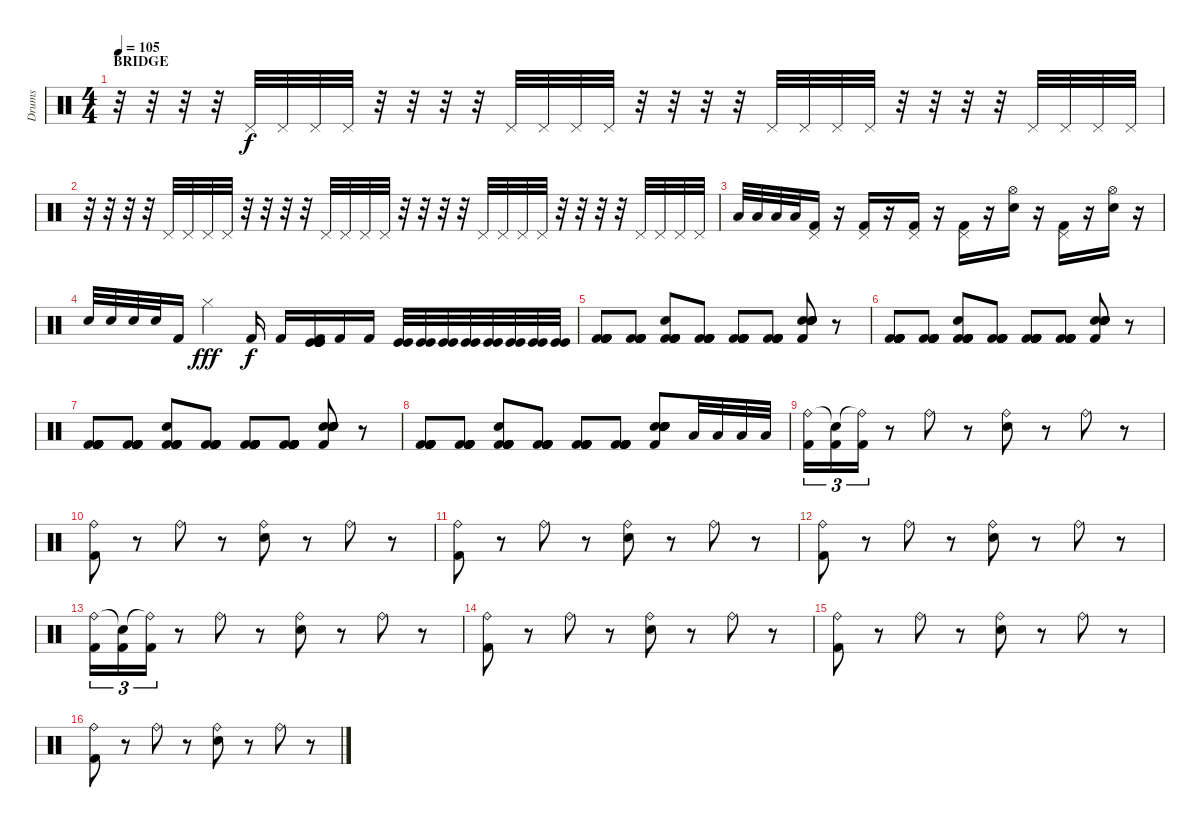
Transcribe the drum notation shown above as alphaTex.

\track ("Drums" "Drums") {instrument percussion}
\staff {score}
\articulation defaults
\ts (4 4)
\section ("" "BRIDGE")
\tempo 105
\clef neutral
\ks c
r.32{dy f} r.32 r.32 r.32 "Pedal Hi-Hat (hit)".32 "Pedal Hi-Hat (hit)".32 "Pedal Hi-Hat (hit)".32 "Pedal Hi-Hat (hit)".32 r.32 r.32 r.32 r.32 "Pedal Hi-Hat (hit)".32 "Pedal Hi-Hat (hit)".32 "Pedal Hi-Hat (hit)".32 "Pedal Hi-Hat (hit)".32 r.32 r.32 r.32 r.32 "Pedal Hi-Hat (hit)".32 "Pedal Hi-Hat (hit)".32 "Pedal Hi-Hat (hit)".32 "Pedal Hi-Hat (hit)".32 r.32 r.32 r.32 r.32 "Pedal Hi-Hat (hit)".32 "Pedal Hi-Hat (hit)".32 "Pedal Hi-Hat (hit)".32 "Pedal Hi-Hat (hit)".32 |
r.32 r.32 r.32 r.32 "Pedal Hi-Hat (hit)".32 "Pedal Hi-Hat (hit)".32 "Pedal Hi-Hat (hit)".32 "Pedal Hi-Hat (hit)".32 r.32 r.32 r.32 r.32 "Pedal Hi-Hat (hit)".32 "Pedal Hi-Hat (hit)".32 "Pedal Hi-Hat (hit)".32 "Pedal Hi-Hat (hit)".32 r.32 r.32 r.32 r.32 "Pedal Hi-Hat (hit)".32 "Pedal Hi-Hat (hit)".32 "Pedal Hi-Hat (hit)".32 "Pedal Hi-Hat (hit)".32 r.32 r.32 r.32 r.32 "Pedal Hi-Hat (hit)".32 "Pedal Hi-Hat (hit)".32 "Pedal Hi-Hat (hit)".32 "Pedal Hi-Hat (hit)".32 |
"Low Floor Tom (hit)".32 "Low Floor Tom (hit)".32 "Low Floor Tom (hit)".32 "Low Floor Tom (hit)".32 ("Pedal Hi-Hat (hit)" "Kick (hit) 2").16 r.16 ("Pedal Hi-Hat (hit)" "Kick (hit) 2").16 r.16 ("Pedal Hi-Hat (hit)" "Kick (hit) 2").16 r.16 ("Pedal Hi-Hat (hit)" "Kick (hit) 2").16 r.16 ("Hi-Hat (open)" "Electric Snare (hit)").16 r.16 ("Pedal Hi-Hat (hit)" "Kick (hit) 2").16 r.16 ("Hi-Hat (open)" "Electric Snare (hit)").16 r.16 |
"Electric Snare (hit)".32 "Electric Snare (hit)".32 "Electric Snare (hit)".32 "Electric Snare (hit)".32 "Kick (hit) 2".16 "Hi-Hat (closed)"{be (custom 0 0 13 8 15 12 30 12 60 12)}.4{dy fff} "Kick (hit) 2".16{dy f} "Kick (hit) 2".16 ("Kick (hit)" "Kick (hit)" "Kick (hit)" "Kick (hit)" "Kick (hit)" "Kick (hit) 2").16 "Kick (hit) 2".16 "Kick (hit) 2".16 ("Kick (hit)" "Kick (hit)").32 ("Kick (hit)" "Kick (hit)").32 ("Kick (hit)" "Kick (hit)").32 ("Kick (hit)" "Kick (hit)").32 ("Kick (hit)" "Kick (hit)").32 ("Kick (hit)" "Kick (hit)").32 ("Kick (hit)" "Kick (hit)").32 ("Kick (hit)" "Kick (hit)").32 |
("Kick (hit) 2" "Kick (hit) 2" "Kick (hit) 2" "Kick (hit) 2" "Kick (hit) 2" "Kick (hit) 2").8 ("Kick (hit) 2" "Kick (hit) 2" "Kick (hit) 2" "Kick (hit) 2" "Kick (hit) 2" "Kick (hit) 2").8 ("Kick (hit) 2" "Kick (hit) 2" "Kick (hit) 2" "Kick (hit) 2" "Kick (hit) 2" "Electric Snare (hit)").8 ("Kick (hit) 2" "Kick (hit) 2" "Kick (hit) 2" "Kick (hit) 2" "Kick (hit) 2" "Kick (hit) 2").8 ("Kick (hit) 2" "Kick (hit) 2" "Kick (hit) 2" "Kick (hit) 2" "Kick (hit) 2" "Kick (hit) 2").8 ("Kick (hit) 2" "Kick (hit) 2" "Kick (hit) 2" "Kick (hit) 2" "Kick (hit) 2" "Kick (hit) 2").8 ("Kick (hit) 2" "Electric Snare (hit)" "Electric Snare (hit)" "Electric Snare (hit)" "Electric Snare (hit)" "Electric Snare (hit)").8 r.8 |
("Kick (hit) 2" "Kick (hit) 2" "Kick (hit) 2" "Kick (hit) 2" "Kick (hit) 2" "Kick (hit) 2").8 ("Kick (hit) 2" "Kick (hit) 2" "Kick (hit) 2" "Kick (hit) 2" "Kick (hit) 2" "Kick (hit) 2").8 ("Kick (hit) 2" "Kick (hit) 2" "Kick (hit) 2" "Kick (hit) 2" "Kick (hit) 2" "Electric Snare (hit)").8 ("Kick (hit) 2" "Kick (hit) 2" "Kick (hit) 2" "Kick (hit) 2" "Kick (hit) 2" "Kick (hit) 2").8 ("Kick (hit) 2" "Kick (hit) 2" "Kick (hit) 2" "Kick (hit) 2" "Kick (hit) 2" "Kick (hit) 2").8 ("Kick (hit) 2" "Kick (hit) 2" "Kick (hit) 2" "Kick (hit) 2" "Kick (hit) 2" "Kick (hit) 2").8 ("Kick (hit) 2" "Electric Snare (hit)" "Electric Snare (hit)" "Electric Snare (hit)" "Electric Snare (hit)" "Electric Snare (hit)").8 r.8 |
("Kick (hit) 2" "Kick (hit) 2" "Kick (hit) 2" "Kick (hit) 2" "Kick (hit) 2" "Kick (hit) 2").8 ("Kick (hit) 2" "Kick (hit) 2" "Kick (hit) 2" "Kick (hit) 2" "Kick (hit) 2" "Kick (hit) 2").8 ("Kick (hit) 2" "Kick (hit) 2" "Kick (hit) 2" "Kick (hit) 2" "Kick (hit) 2" "Electric Snare (hit)").8 ("Kick (hit) 2" "Kick (hit) 2" "Kick (hit) 2" "Kick (hit) 2" "Kick (hit) 2" "Kick (hit) 2").8 ("Kick (hit) 2" "Kick (hit) 2" "Kick (hit) 2" "Kick (hit) 2" "Kick (hit) 2" "Kick (hit) 2").8 ("Kick (hit) 2" "Kick (hit) 2" "Kick (hit) 2" "Kick (hit) 2" "Kick (hit) 2" "Kick (hit) 2").8 ("Kick (hit) 2" "Electric Snare (hit)" "Electric Snare (hit)" "Electric Snare (hit)" "Electric Snare (hit)" "Electric Snare (hit)").8 r.8 |
("Kick (hit) 2" "Kick (hit) 2" "Kick (hit) 2" "Kick (hit) 2" "Kick (hit) 2" "Kick (hit) 2").8 ("Kick (hit) 2" "Kick (hit) 2" "Kick (hit) 2" "Kick (hit) 2" "Kick (hit) 2" "Kick (hit) 2").8 ("Kick (hit) 2" "Kick (hit) 2" "Kick (hit) 2" "Kick (hit) 2" "Kick (hit) 2" "Electric Snare (hit)").8 ("Kick (hit) 2" "Kick (hit) 2" "Kick (hit) 2" "Kick (hit) 2" "Kick (hit) 2" "Kick (hit) 2").8 ("Kick (hit) 2" "Kick (hit) 2" "Kick (hit) 2" "Kick (hit) 2" "Kick (hit) 2" "Kick (hit) 2").8 ("Kick (hit) 2" "Kick (hit) 2" "Kick (hit) 2" "Kick (hit) 2" "Kick (hit) 2" "Kick (hit) 2").8 ("Kick (hit) 2" "Electric Snare (hit)" "Electric Snare (hit)" "Electric Snare (hit)" "Electric Snare (hit)" "Electric Snare (hit)").8 "Low Floor Tom (hit)".32 "Low Floor Tom (hit)".32 "Low Floor Tom (hit)".32 "Low Floor Tom (hit)".32 |
("Ride (bell)" "Kick (hit) 2").16{tu (3 2)} ("Snare (hit)"{t} "Kick (hit) 2").16{tu (3 2)} ("Ride (bell)"{t} "Kick (hit) 2").16{tu (3 2)} r.8 "Ride (bell)".8 r.8 ("Ride (bell)" "Electric Snare (hit)").8 r.8 "Ride (bell)".8 r.8 |
("Ride (bell)" "Kick (hit) 2").8 r.8 "Ride (bell)".8 r.8 ("Ride (bell)" "Electric Snare (hit)").8 r.8 "Ride (bell)".8 r.8 |
("Ride (bell)" "Kick (hit) 2").8 r.8 "Ride (bell)".8 r.8 ("Ride (bell)" "Electric Snare (hit)").8 r.8 "Ride (bell)".8 r.8 |
("Ride (bell)" "Kick (hit) 2").8 r.8 "Ride (bell)".8 r.8 ("Ride (bell)" "Electric Snare (hit)").8 r.8 "Ride (bell)".8 r.8 |
("Ride (bell)" "Kick (hit) 2").16{tu (3 2)} ("Snare (hit)"{t} "Kick (hit) 2").16{tu (3 2)} ("Ride (bell)"{t} "Kick (hit) 2").16{tu (3 2)} r.8 "Ride (bell)".8 r.8 ("Ride (bell)" "Electric Snare (hit)").8 r.8 "Ride (bell)".8 r.8 |
("Ride (bell)" "Kick (hit) 2").8 r.8 "Ride (bell)".8 r.8 ("Ride (bell)" "Electric Snare (hit)").8 r.8 "Ride (bell)".8 r.8 |
("Ride (bell)" "Kick (hit) 2").8 r.8 "Ride (bell)".8 r.8 ("Ride (bell)" "Electric Snare (hit)").8 r.8 "Ride (bell)".8 r.8 |
("Ride (bell)" "Kick (hit) 2").8 r.8 "Ride (bell)".8 r.8 ("Ride (bell)" "Electric Snare (hit)").8 r.8 "Ride (bell)".8 r.8
